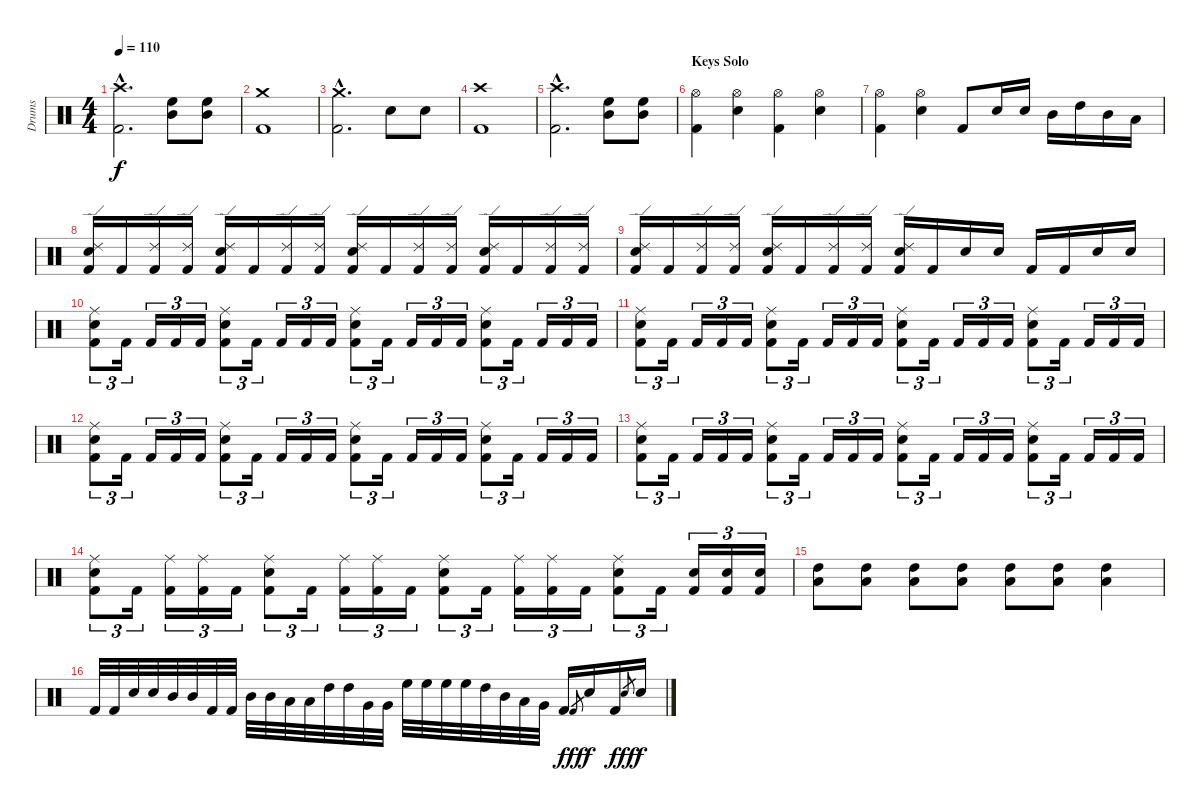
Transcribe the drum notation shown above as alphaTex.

\track ("Drums" "Drums") {instrument percussion}
\staff {score}
\articulation defaults
\ts (4 4)
\tempo 110
\clef neutral
\ks c
("Crash high (hit)"{hac} "Kick (hit) 2"{hac}).2{d dy f} ("High Floor Tom (hit)" "Mid Tom (hit)").8 ("High Floor Tom (hit)" "Mid Tom (hit)").8 |
("Crash medium (hit)" "Kick (hit) 2").1 |
("Crash medium (hit)"{hac} "Kick (hit) 2"{hac}).2{d} "Snare (hit) 2".8 "Snare (hit) 2".8 |
("Crash high (hit)" "Kick (hit) 2").1 |
("Crash high (hit)"{hac} "Kick (hit) 2"{hac}).2{d} ("High Floor Tom (hit)" "Mid Tom (hit)").8 ("High Floor Tom (hit)" "Mid Tom (hit)").8 |
\section ("" "Keys Solo")
("Hi-Hat (open)" "Kick (hit) 2").4 ("Hi-Hat (open)" "Electric Snare (hit)").4 ("Hi-Hat (open)" "Kick (hit) 2").4 ("Hi-Hat (open)" "Electric Snare (hit)").4 |
("Hi-Hat (open)" "Kick (hit) 2").4 ("Hi-Hat (open)" "Electric Snare (hit)").4 "Kick (hit) 2".8 "Electric Snare (hit)".16 "Electric Snare (hit)".16 "Mid Tom (hit)".16 "High Tom (hit)".16 "Mid Tom (hit)".16 "Low Tom (hit)".16 |
("Ride (edge) 2" "Electric Snare (hit)" "Kick (hit) 2").16 "Kick (hit) 2".16 ("Ride (edge) 2" "Kick (hit) 2").16 ("Ride (edge) 2" "Kick (hit) 2").16 ("Ride (edge) 2" "Electric Snare (hit)" "Kick (hit) 2").16 "Kick (hit) 2".16 ("Ride (edge) 2" "Kick (hit) 2").16 ("Ride (edge) 2" "Kick (hit) 2").16 ("Ride (edge) 2" "Electric Snare (hit)" "Kick (hit) 2").16 "Kick (hit) 2".16 ("Ride (edge) 2" "Kick (hit) 2").16 ("Ride (edge) 2" "Kick (hit) 2").16 ("Ride (edge) 2" "Electric Snare (hit)" "Kick (hit) 2").16 "Kick (hit) 2".16 ("Ride (edge) 2" "Kick (hit) 2").16 ("Ride (edge) 2" "Kick (hit) 2").16 |
("Ride (edge) 2" "Electric Snare (hit)" "Kick (hit) 2").16 "Kick (hit) 2".16 ("Ride (edge) 2" "Kick (hit) 2").16 ("Ride (edge) 2" "Kick (hit) 2").16 ("Ride (edge) 2" "Electric Snare (hit)" "Kick (hit) 2").16 "Kick (hit) 2".16 ("Ride (edge) 2" "Kick (hit) 2").16 ("Ride (edge) 2" "Kick (hit) 2").16 ("Ride (edge) 2" "Electric Snare (hit)" "Kick (hit) 2").16 "Kick (hit) 2".16 "Snare (hit) 2".16 "Snare (hit) 2".16 "Kick (hit) 2".16 "Kick (hit) 2".16 "Snare (hit) 2".16 "Snare (hit) 2".16 |
("Ride (middle)" "Electric Snare (hit)" "Kick (hit) 2").8{tu (3 2)} "Kick (hit) 2".16{tu (3 2)} "Kick (hit) 2".16{tu (3 2)} "Kick (hit) 2".16{tu (3 2)} "Kick (hit) 2".16{tu (3 2)} ("Ride (middle)" "Electric Snare (hit)" "Kick (hit) 2").8{tu (3 2)} "Kick (hit) 2".16{tu (3 2)} "Kick (hit) 2".16{tu (3 2)} "Kick (hit) 2".16{tu (3 2)} "Kick (hit) 2".16{tu (3 2)} ("Ride (middle)" "Electric Snare (hit)" "Kick (hit) 2").8{tu (3 2)} "Kick (hit) 2".16{tu (3 2)} "Kick (hit) 2".16{tu (3 2)} "Kick (hit) 2".16{tu (3 2)} "Kick (hit) 2".16{tu (3 2)} ("Ride (middle)" "Electric Snare (hit)" "Kick (hit) 2").8{tu (3 2)} "Kick (hit) 2".16{tu (3 2)} "Kick (hit) 2".16{tu (3 2)} "Kick (hit) 2".16{tu (3 2)} "Kick (hit) 2".16{tu (3 2)} |
("Ride (middle)" "Electric Snare (hit)" "Kick (hit) 2").8{tu (3 2)} "Kick (hit) 2".16{tu (3 2)} "Kick (hit) 2".16{tu (3 2)} "Kick (hit) 2".16{tu (3 2)} "Kick (hit) 2".16{tu (3 2)} ("Ride (middle)" "Electric Snare (hit)" "Kick (hit) 2").8{tu (3 2)} "Kick (hit) 2".16{tu (3 2)} "Kick (hit) 2".16{tu (3 2)} "Kick (hit) 2".16{tu (3 2)} "Kick (hit) 2".16{tu (3 2)} ("Ride (middle)" "Electric Snare (hit)" "Kick (hit) 2").8{tu (3 2)} "Kick (hit) 2".16{tu (3 2)} "Kick (hit) 2".16{tu (3 2)} "Kick (hit) 2".16{tu (3 2)} "Kick (hit) 2".16{tu (3 2)} ("Ride (middle)" "Electric Snare (hit)" "Kick (hit) 2").8{tu (3 2)} "Kick (hit) 2".16{tu (3 2)} "Kick (hit) 2".16{tu (3 2)} "Kick (hit) 2".16{tu (3 2)} "Kick (hit) 2".16{tu (3 2)} |
("Ride (middle)" "Electric Snare (hit)" "Kick (hit) 2").8{tu (3 2)} "Kick (hit) 2".16{tu (3 2)} "Kick (hit) 2".16{tu (3 2)} "Kick (hit) 2".16{tu (3 2)} "Kick (hit) 2".16{tu (3 2)} ("Ride (middle)" "Electric Snare (hit)" "Kick (hit) 2").8{tu (3 2)} "Kick (hit) 2".16{tu (3 2)} "Kick (hit) 2".16{tu (3 2)} "Kick (hit) 2".16{tu (3 2)} "Kick (hit) 2".16{tu (3 2)} ("Ride (middle)" "Electric Snare (hit)" "Kick (hit) 2").8{tu (3 2)} "Kick (hit) 2".16{tu (3 2)} "Kick (hit) 2".16{tu (3 2)} "Kick (hit) 2".16{tu (3 2)} "Kick (hit) 2".16{tu (3 2)} ("Ride (middle)" "Electric Snare (hit)" "Kick (hit) 2").8{tu (3 2)} "Kick (hit) 2".16{tu (3 2)} "Kick (hit) 2".16{tu (3 2)} "Kick (hit) 2".16{tu (3 2)} "Kick (hit) 2".16{tu (3 2)} |
("Ride (middle)" "Electric Snare (hit)" "Kick (hit) 2").8{tu (3 2)} "Kick (hit) 2".16{tu (3 2)} "Kick (hit) 2".16{tu (3 2)} "Kick (hit) 2".16{tu (3 2)} "Kick (hit) 2".16{tu (3 2)} ("Ride (middle)" "Electric Snare (hit)" "Kick (hit) 2").8{tu (3 2)} "Kick (hit) 2".16{tu (3 2)} "Kick (hit) 2".16{tu (3 2)} "Kick (hit) 2".16{tu (3 2)} "Kick (hit) 2".16{tu (3 2)} ("Ride (middle)" "Electric Snare (hit)" "Kick (hit) 2").8{tu (3 2)} "Kick (hit) 2".16{tu (3 2)} "Kick (hit) 2".16{tu (3 2)} "Kick (hit) 2".16{tu (3 2)} "Kick (hit) 2".16{tu (3 2)} ("Ride (middle)" "Electric Snare (hit)" "Kick (hit) 2").8{tu (3 2)} "Kick (hit) 2".16{tu (3 2)} "Kick (hit) 2".16{tu (3 2)} "Kick (hit) 2".16{tu (3 2)} "Kick (hit) 2".16{tu (3 2)} |
("Ride (middle)" "Electric Snare (hit)" "Kick (hit) 2").8{tu (3 2)} "Kick (hit) 2".16{tu (3 2)} ("Ride (middle)" "Kick (hit) 2").16{tu (3 2)} ("Ride (middle)" "Kick (hit) 2").16{tu (3 2)} "Kick (hit) 2".16{tu (3 2)} ("Ride (middle)" "Electric Snare (hit)" "Kick (hit) 2").8{tu (3 2)} "Kick (hit) 2".16{tu (3 2)} ("Ride (middle)" "Kick (hit) 2").16{tu (3 2)} ("Ride (middle)" "Kick (hit) 2").16{tu (3 2)} "Kick (hit) 2".16{tu (3 2)} ("Ride (middle)" "Electric Snare (hit)" "Kick (hit) 2").8{tu (3 2)} "Kick (hit) 2".16{tu (3 2)} ("Ride (middle)" "Kick (hit) 2").16{tu (3 2)} ("Ride (middle)" "Kick (hit) 2").16{tu (3 2)} "Kick (hit) 2".16{tu (3 2)} ("Ride (middle)" "Electric Snare (hit)" "Kick (hit) 2").8{tu (3 2)} "Kick (hit) 2".16{tu (3 2)} ("Electric Snare (hit)" "Kick (hit) 2").16{tu (3 2)} ("Electric Snare (hit)" "Kick (hit) 2").16{tu (3 2)} ("Electric Snare (hit)" "Kick (hit) 2").16{tu (3 2)} |
("High Tom (hit)" "Low Tom (hit)").8 ("High Tom (hit)" "Low Tom (hit)").8 ("High Tom (hit)" "Low Tom (hit)").8 ("High Tom (hit)" "Low Tom (hit)").8 ("High Tom (hit)" "Low Tom (hit)").8 ("High Tom (hit)" "Low Tom (hit)").8 ("High Tom (hit)" "Low Tom (hit)").4 |
"Kick (hit) 2".32 "Kick (hit) 2".32 "Snare (hit) 2".32 "Snare (hit) 2".32 "Mid Tom (hit)".32 "Mid Tom (hit)".32 "Kick (hit) 2".32 "Kick (hit) 2".32 "Mid Tom (hit)".32 "Mid Tom (hit)".32 "Low Tom (hit)".32 "Low Tom (hit)".32 "High Tom (hit)".32 "High Tom (hit)".32 "Very Low Tom (hit)".32 "Very Low Tom (hit)".32 "High Floor Tom (hit)".32 "High Floor Tom (hit)".32 "High Floor Tom (hit)".32 "High Floor Tom (hit)".32 "High Tom (hit)".32 "Mid Tom (hit)".32 "Low Tom (hit)".32 "Very Low Tom (hit)".32 "Kick (hit) 2".16 "Kick (hit) 2".8{gr dy fff} "Snare (hit) 2".16{dy f} "Kick (hit) 2".16 "Snare (hit) 2".8{gr dy fff} "Snare (hit) 2".16{dy f}
